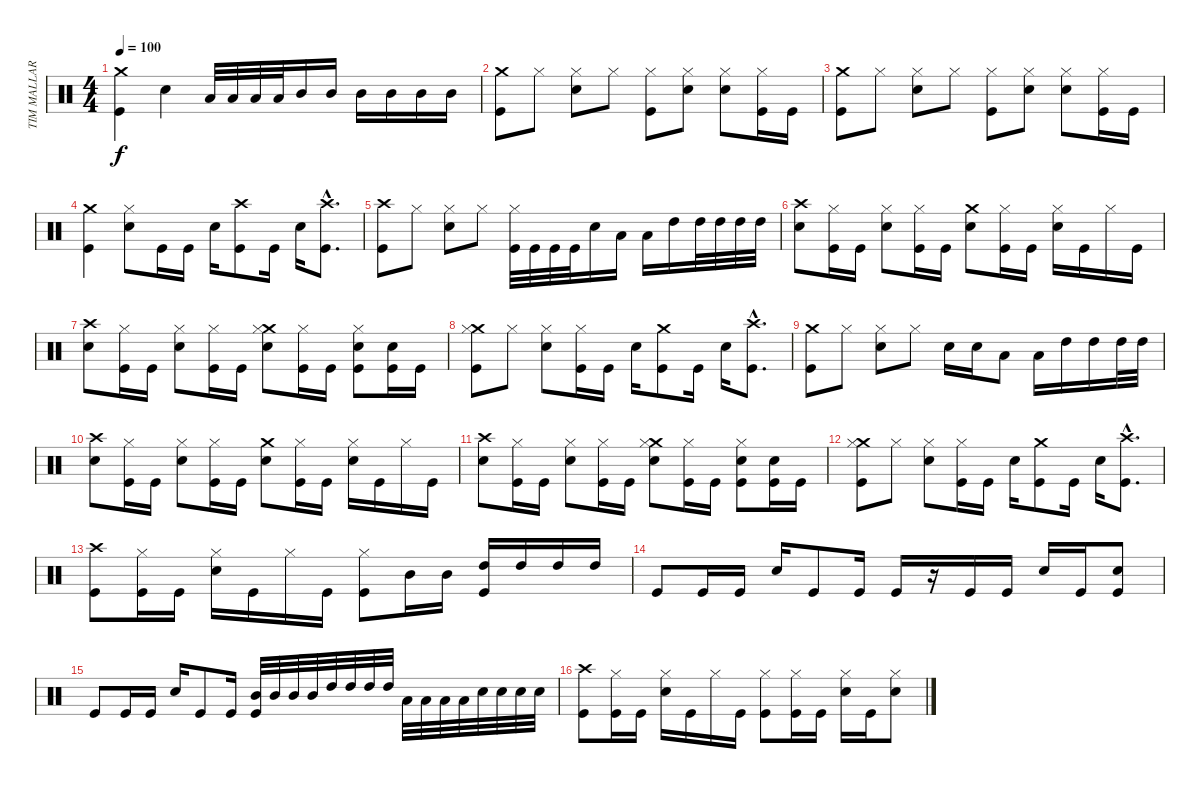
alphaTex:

\track ("TIM MALLARE - drums" "TIM MALLAR") {instrument percussion}
\staff {score}
\articulation defaults
\ts (4 4)
\tempo 100
\clef neutral
\ks c
("Crash medium (hit)" "Kick (hit)").4{dy f} "Electric Snare (hit)".4 "Low Tom (hit)".32 "Low Tom (hit)".32 "Low Tom (hit)".32 "Low Tom (hit)".32 "Mid Tom (hit)".16 "Mid Tom (hit)".16 "Mid Tom (hit)".16 "Mid Tom (hit)".16 "Mid Tom (hit)".16 "Mid Tom (hit)".16 |
("Crash medium (hit)" "Kick (hit)").8 "Hi-Hat (closed)".8 ("Hi-Hat (closed)" "Electric Snare (hit)").8 "Hi-Hat (closed)".8 ("Hi-Hat (closed)" "Kick (hit)").8 ("Hi-Hat (closed)" "Electric Snare (hit)").8 ("Hi-Hat (closed)" "Electric Snare (hit)").8 ("Hi-Hat (closed)" "Kick (hit)").16 "Kick (hit)".16 |
("Crash medium (hit)" "Kick (hit)").8 "Hi-Hat (closed)".8 ("Hi-Hat (closed)" "Electric Snare (hit)").8 "Hi-Hat (closed)".8 ("Hi-Hat (closed)" "Kick (hit)").8 ("Hi-Hat (closed)" "Electric Snare (hit)").8 ("Hi-Hat (closed)" "Electric Snare (hit)").8 ("Hi-Hat (closed)" "Kick (hit)").16 "Kick (hit)".16 |
("Crash medium (hit)" "Kick (hit)").4 ("Hi-Hat (closed)" "Electric Snare (hit)").8 "Kick (hit)".16 "Kick (hit)".16 "Electric Snare (hit)".16 ("Crash high (hit)" "Kick (hit)").8 "Kick (hit)".16 "Electric Snare (hit)".16 ("Crash high (hit)"{hac} "Kick (hit)"{hac}).8{d} |
("Crash high (hit)" "Kick (hit)").8 "Hi-Hat (closed)".8 ("Hi-Hat (closed)" "Electric Snare (hit)").8 "Hi-Hat (closed)".8 ("Hi-Hat (closed)" "Kick (hit)").32 "Kick (hit)".32 "Kick (hit)".32 "Kick (hit)".32 "Electric Snare (hit)".16 "Low Tom (hit)".16 "Low Tom (hit)".16 "High Tom (hit)".16 "High Tom (hit)".32 "High Tom (hit)".32 "High Tom (hit)".32 "High Tom (hit)".32 |
("Crash high (hit)" "Electric Snare (hit)").8 ("Hi-Hat (closed)" "Kick (hit)").16 "Kick (hit)".16 ("Hi-Hat (closed)" "Electric Snare (hit)").8 ("Hi-Hat (closed)" "Kick (hit)").16 "Kick (hit)".16 ("Crash medium (hit)" "Electric Snare (hit)").8 ("Hi-Hat (closed)" "Kick (hit)").16 "Kick (hit)".16 ("Hi-Hat (closed)" "Electric Snare (hit)").16 "Kick (hit)".16 "Hi-Hat (closed)".16 "Kick (hit)".16 |
("Crash high (hit)" "Electric Snare (hit)").8 ("Hi-Hat (closed)" "Kick (hit)").16 "Kick (hit)".16 ("Hi-Hat (closed)" "Electric Snare (hit)").8 ("Hi-Hat (closed)" "Kick (hit)").16 "Kick (hit)".16 ("Crash medium (hit)" "Hi-Hat (closed)" "Electric Snare (hit)").8 ("Hi-Hat (closed)" "Kick (hit)").16 "Kick (hit)".16 ("Hi-Hat (closed)" "Electric Snare (hit)" "Kick (hit)").8 ("Electric Snare (hit)" "Kick (hit)").16 "Kick (hit)".16 |
("Crash medium (hit)" "Hi-Hat (closed)" "Kick (hit)").8 "Hi-Hat (closed)".8 ("Hi-Hat (closed)" "Electric Snare (hit)").8 ("Hi-Hat (closed)" "Kick (hit)").16 "Kick (hit)".16 "Electric Snare (hit)".16 ("Crash medium (hit)" "Kick (hit)").8 "Kick (hit)".16 "Electric Snare (hit)".16 ("Crash high (hit)"{hac} "Kick (hit)"{hac}).8{d} |
("Crash medium (hit)" "Kick (hit)").8 "Hi-Hat (closed)".8 ("Electric Snare (hit)" "Hi-Hat (closed)").8 "Hi-Hat (closed)".8 "Electric Snare (hit)".16 "Electric Snare (hit)".16 "Low Tom (hit)".8 "Low Tom (hit)".16 "High Tom (hit)".16 "High Tom (hit)".16 "High Tom (hit)".32 "High Tom (hit)".32 |
("Crash high (hit)" "Electric Snare (hit)").8 ("Hi-Hat (closed)" "Kick (hit)").16 "Kick (hit)".16 ("Hi-Hat (closed)" "Electric Snare (hit)").8 ("Hi-Hat (closed)" "Kick (hit)").16 "Kick (hit)".16 ("Crash medium (hit)" "Electric Snare (hit)").8 ("Hi-Hat (closed)" "Kick (hit)").16 "Kick (hit)".16 ("Hi-Hat (closed)" "Electric Snare (hit)").16 "Kick (hit)".16 "Hi-Hat (closed)".16 "Kick (hit)".16 |
("Crash high (hit)" "Electric Snare (hit)").8 ("Hi-Hat (closed)" "Kick (hit)").16 "Kick (hit)".16 ("Hi-Hat (closed)" "Electric Snare (hit)").8 ("Hi-Hat (closed)" "Kick (hit)").16 "Kick (hit)".16 ("Crash medium (hit)" "Hi-Hat (closed)" "Electric Snare (hit)").8 ("Hi-Hat (closed)" "Kick (hit)").16 "Kick (hit)".16 ("Hi-Hat (closed)" "Electric Snare (hit)" "Kick (hit)").8 ("Electric Snare (hit)" "Kick (hit)").16 "Kick (hit)".16 |
("Crash medium (hit)" "Hi-Hat (closed)" "Kick (hit)").8 "Hi-Hat (closed)".8 ("Hi-Hat (closed)" "Electric Snare (hit)").8 ("Hi-Hat (closed)" "Kick (hit)").16 "Kick (hit)".16 "Electric Snare (hit)".16 ("Crash medium (hit)" "Kick (hit)").8 "Kick (hit)".16 "Electric Snare (hit)".16 ("Crash high (hit)"{hac} "Kick (hit)"{hac}).8{d} |
("Crash high (hit)" "Kick (hit)").8 ("Hi-Hat (closed)" "Kick (hit)").16 "Kick (hit)".16 ("Hi-Hat (closed)" "Electric Snare (hit)").16 "Kick (hit)".16 "Hi-Hat (closed)".16 "Kick (hit)".16 ("Hi-Hat (closed)" "Kick (hit)").8 "Mid Tom (hit)".16 "Mid Tom (hit)".16 ("High Tom (hit)" "Kick (hit)").16 "High Tom (hit)".16 "High Tom (hit)".16 "High Tom (hit)".16 |
"Kick (hit)".8 "Kick (hit)".16 "Kick (hit)".16 "Electric Snare (hit)".16 "Kick (hit)".8 "Kick (hit)".16 "Kick (hit)".16 r.16 "Kick (hit)".16 "Kick (hit)".16 "Electric Snare (hit)".16 "Kick (hit)".16 ("Electric Snare (hit)" "Kick (hit)").8 |
"Kick (hit)".8 "Kick (hit)".16 "Kick (hit)".16 "Electric Snare (hit)".16 "Kick (hit)".8 "Kick (hit)".16 ("Mid Tom (hit)" "Kick (hit)").32 "Mid Tom (hit)".32 "Mid Tom (hit)".32 "Mid Tom (hit)".32 "High Tom (hit)".32 "High Tom (hit)".32 "High Tom (hit)".32 "High Tom (hit)".32 "Low Tom (hit)".32 "Low Tom (hit)".32 "Low Tom (hit)".32 "Low Tom (hit)".32 "Electric Snare (hit)".32 "Electric Snare (hit)".32 "Electric Snare (hit)".32 "Electric Snare (hit)".32 |
("Crash high (hit)" "Kick (hit)").8 ("Hi-Hat (closed)" "Kick (hit)").16 "Kick (hit)".16 ("Hi-Hat (closed)" "Electric Snare (hit)").16 "Kick (hit)".16 "Hi-Hat (closed)".16 "Kick (hit)".16 ("Hi-Hat (closed)" "Kick (hit)").8 ("Hi-Hat (closed)" "Kick (hit)").16 "Kick (hit)".16 ("Hi-Hat (closed)" "Electric Snare (hit)").16 "Kick (hit)".16 ("Hi-Hat (closed)" "Electric Snare (hit)").8
